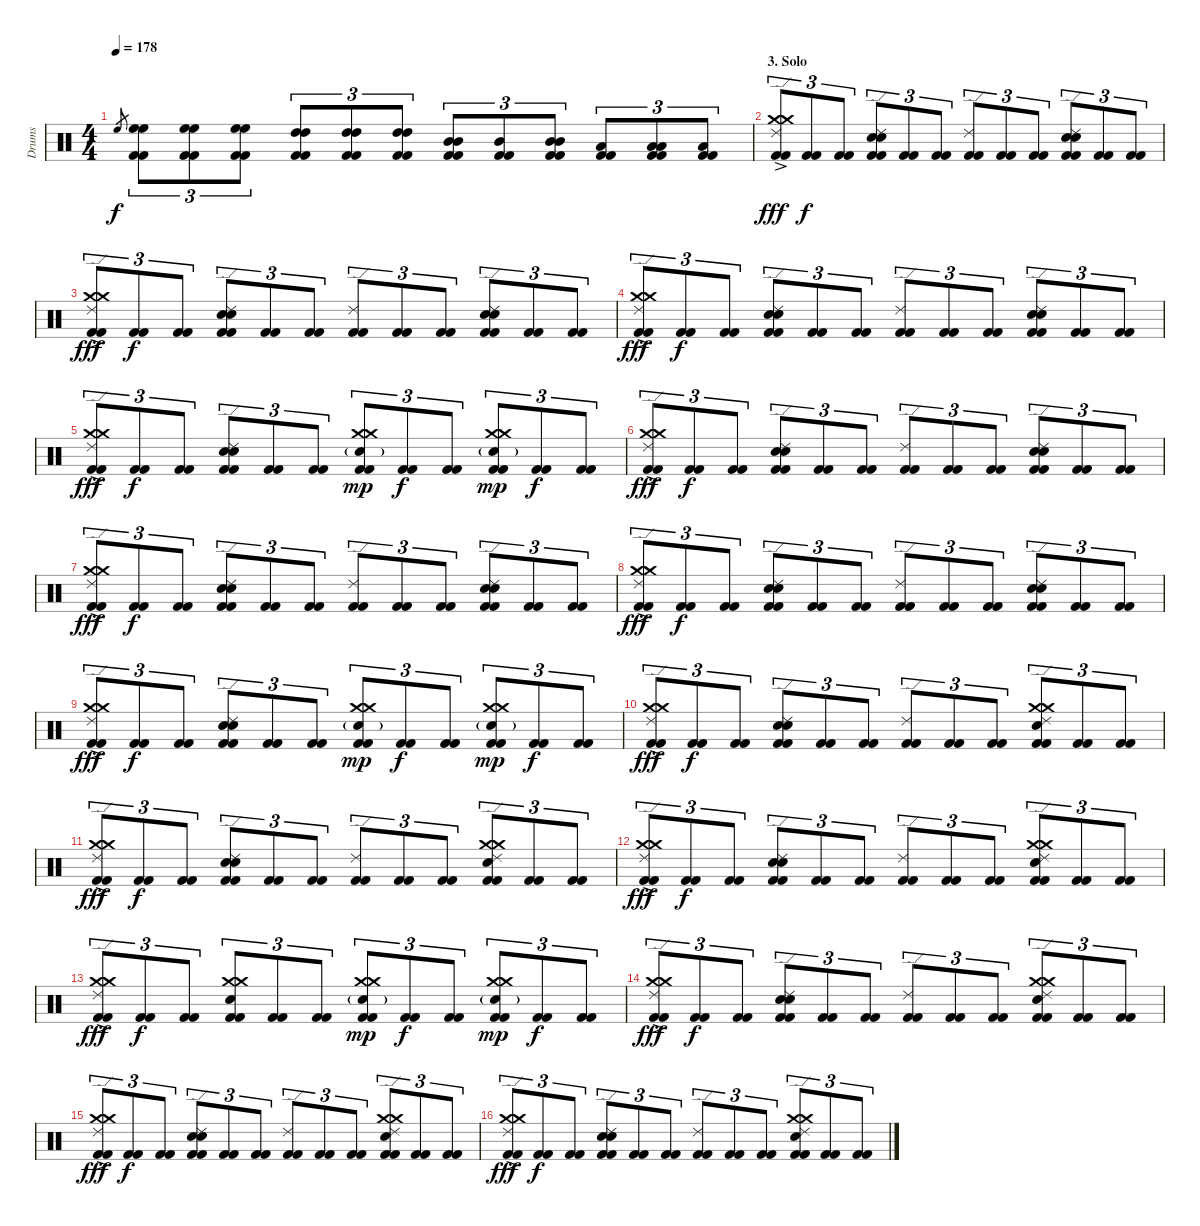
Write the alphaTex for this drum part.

\track ("Drums" "Drums") {instrument percussion}
\staff {score}
\articulation defaults
\ts (4 4)
\tempo 178
\clef neutral
\ks c "High Floor Tom (hit)".8{gr dy f}
("High Floor Tom (hit)" "High Floor Tom (hit)" "Kick (hit) 2" "Kick (hit) 2").8{tu (3 2)} ("High Floor Tom (hit)" "High Floor Tom (hit)" "Kick (hit) 2" "Kick (hit) 2").8{tu (3 2)} ("High Floor Tom (hit)" "High Floor Tom (hit)" "Kick (hit) 2" "Kick (hit) 2").8{tu (3 2)} ("High Tom (hit)" "High Tom (hit)" "Kick (hit) 2" "Kick (hit) 2").8{tu (3 2)} ("High Tom (hit)" "High Tom (hit)" "Kick (hit) 2" "Kick (hit) 2").8{tu (3 2)} ("High Tom (hit)" "High Tom (hit)" "Kick (hit) 2" "Kick (hit) 2").8{tu (3 2)} ("Mid Tom (hit)" "Mid Tom (hit)" "Kick (hit) 2" "Kick (hit) 2").8{tu (3 2)} ("Mid Tom (hit)" "Kick (hit) 2" "Kick (hit) 2").8{tu (3 2)} ("Mid Tom (hit)" "Mid Tom (hit)" "Kick (hit) 2" "Kick (hit) 2").8{tu (3 2)} ("Low Tom (hit)" "Kick (hit) 2" "Kick (hit) 2").8{tu (3 2)} ("Low Tom (hit)" "Low Tom (hit)" "Kick (hit) 2" "Kick (hit) 2").8{tu (3 2)} ("Low Tom (hit)" "Kick (hit) 2" "Kick (hit) 2").8{tu (3 2)} |
\section ("" "3. Solo")
("Crash medium (hit)"{ac} "Crash medium (hit)"{ac} "Ride (edge) 2" "Kick (hit) 2" "Kick (hit) 2").8{tu (3 2) dy fff} ("Kick (hit) 2" "Kick (hit) 2").8{tu (3 2) dy f} ("Kick (hit) 2" "Kick (hit) 2").8{tu (3 2)} ("Ride (edge) 2" "Snare (hit) 2" "Electric Snare (hit)" "Kick (hit) 2" "Kick (hit) 2").8{tu (3 2)} ("Kick (hit) 2" "Kick (hit) 2").8{tu (3 2)} ("Kick (hit) 2" "Kick (hit) 2").8{tu (3 2)} ("Ride (edge) 2" "Kick (hit) 2" "Kick (hit) 2").8{tu (3 2)} ("Kick (hit) 2" "Kick (hit) 2").8{tu (3 2)} ("Kick (hit) 2" "Kick (hit) 2").8{tu (3 2)} ("Ride (edge) 2" "Snare (hit) 2" "Electric Snare (hit)" "Kick (hit) 2" "Kick (hit) 2").8{tu (3 2)} ("Kick (hit) 2" "Kick (hit) 2").8{tu (3 2)} ("Kick (hit) 2" "Kick (hit) 2").8{tu (3 2)} |
("Crash medium (hit)"{ac} "Crash medium (hit)"{ac} "Ride (edge) 2" "Kick (hit) 2" "Kick (hit) 2").8{tu (3 2) dy fff} ("Kick (hit) 2" "Kick (hit) 2").8{tu (3 2) dy f} ("Kick (hit) 2" "Kick (hit) 2").8{tu (3 2)} ("Ride (edge) 2" "Snare (hit) 2" "Electric Snare (hit)" "Kick (hit) 2" "Kick (hit) 2").8{tu (3 2)} ("Kick (hit) 2" "Kick (hit) 2").8{tu (3 2)} ("Kick (hit) 2" "Kick (hit) 2").8{tu (3 2)} ("Ride (edge) 2" "Kick (hit) 2" "Kick (hit) 2").8{tu (3 2)} ("Kick (hit) 2" "Kick (hit) 2").8{tu (3 2)} ("Kick (hit) 2" "Kick (hit) 2").8{tu (3 2)} ("Ride (edge) 2" "Snare (hit) 2" "Electric Snare (hit)" "Kick (hit) 2" "Kick (hit) 2").8{tu (3 2)} ("Kick (hit) 2" "Kick (hit) 2").8{tu (3 2)} ("Kick (hit) 2" "Kick (hit) 2").8{tu (3 2)} |
("Crash medium (hit)"{ac} "Crash medium (hit)"{ac} "Ride (edge) 2" "Kick (hit) 2" "Kick (hit) 2").8{tu (3 2) dy fff} ("Kick (hit) 2" "Kick (hit) 2").8{tu (3 2) dy f} ("Kick (hit) 2" "Kick (hit) 2").8{tu (3 2)} ("Ride (edge) 2" "Snare (hit) 2" "Electric Snare (hit)" "Kick (hit) 2" "Kick (hit) 2").8{tu (3 2)} ("Kick (hit) 2" "Kick (hit) 2").8{tu (3 2)} ("Kick (hit) 2" "Kick (hit) 2").8{tu (3 2)} ("Ride (edge) 2" "Kick (hit) 2" "Kick (hit) 2").8{tu (3 2)} ("Kick (hit) 2" "Kick (hit) 2").8{tu (3 2)} ("Kick (hit) 2" "Kick (hit) 2").8{tu (3 2)} ("Ride (edge) 2" "Snare (hit) 2" "Electric Snare (hit)" "Kick (hit) 2" "Kick (hit) 2").8{tu (3 2)} ("Kick (hit) 2" "Kick (hit) 2").8{tu (3 2)} ("Kick (hit) 2" "Kick (hit) 2").8{tu (3 2)} |
("Crash medium (hit)"{ac} "Crash medium (hit)"{ac} "Ride (edge) 2" "Kick (hit) 2" "Kick (hit) 2").8{tu (3 2) dy fff} ("Kick (hit) 2" "Kick (hit) 2").8{tu (3 2) dy f} ("Kick (hit) 2" "Kick (hit) 2").8{tu (3 2)} ("Ride (edge) 2" "Snare (hit) 2" "Electric Snare (hit)" "Kick (hit) 2" "Kick (hit) 2").8{tu (3 2)} ("Kick (hit) 2" "Kick (hit) 2").8{tu (3 2)} ("Kick (hit) 2" "Kick (hit) 2").8{tu (3 2)} ("Crash medium (hit)" "Crash medium (hit)" "Snare (hit) 2"{g} "Kick (hit) 2" "Kick (hit) 2").8{tu (3 2) dy mp} ("Kick (hit) 2" "Kick (hit) 2").8{tu (3 2) dy f} ("Kick (hit) 2" "Kick (hit) 2").8{tu (3 2)} ("Crash medium (hit)" "Crash medium (hit)" "Snare (hit) 2"{g} "Kick (hit) 2" "Kick (hit) 2").8{tu (3 2) dy mp} ("Kick (hit) 2" "Kick (hit) 2").8{tu (3 2) dy f} ("Kick (hit) 2" "Kick (hit) 2").8{tu (3 2)} |
("Crash medium (hit)"{ac} "Crash medium (hit)"{ac} "Ride (edge) 2" "Kick (hit) 2" "Kick (hit) 2").8{tu (3 2) dy fff} ("Kick (hit) 2" "Kick (hit) 2").8{tu (3 2) dy f} ("Kick (hit) 2" "Kick (hit) 2").8{tu (3 2)} ("Ride (edge) 2" "Snare (hit) 2" "Electric Snare (hit)" "Kick (hit) 2" "Kick (hit) 2").8{tu (3 2)} ("Kick (hit) 2" "Kick (hit) 2").8{tu (3 2)} ("Kick (hit) 2" "Kick (hit) 2").8{tu (3 2)} ("Ride (edge) 2" "Kick (hit) 2" "Kick (hit) 2").8{tu (3 2)} ("Kick (hit) 2" "Kick (hit) 2").8{tu (3 2)} ("Kick (hit) 2" "Kick (hit) 2").8{tu (3 2)} ("Ride (edge) 2" "Snare (hit) 2" "Electric Snare (hit)" "Kick (hit) 2" "Kick (hit) 2").8{tu (3 2)} ("Kick (hit) 2" "Kick (hit) 2").8{tu (3 2)} ("Kick (hit) 2" "Kick (hit) 2").8{tu (3 2)} |
("Crash medium (hit)"{ac} "Crash medium (hit)"{ac} "Ride (edge) 2" "Kick (hit) 2" "Kick (hit) 2").8{tu (3 2) dy fff} ("Kick (hit) 2" "Kick (hit) 2").8{tu (3 2) dy f} ("Kick (hit) 2" "Kick (hit) 2").8{tu (3 2)} ("Ride (edge) 2" "Snare (hit) 2" "Electric Snare (hit)" "Kick (hit) 2" "Kick (hit) 2").8{tu (3 2)} ("Kick (hit) 2" "Kick (hit) 2").8{tu (3 2)} ("Kick (hit) 2" "Kick (hit) 2").8{tu (3 2)} ("Ride (edge) 2" "Kick (hit) 2" "Kick (hit) 2").8{tu (3 2)} ("Kick (hit) 2" "Kick (hit) 2").8{tu (3 2)} ("Kick (hit) 2" "Kick (hit) 2").8{tu (3 2)} ("Ride (edge) 2" "Snare (hit) 2" "Electric Snare (hit)" "Kick (hit) 2" "Kick (hit) 2").8{tu (3 2)} ("Kick (hit) 2" "Kick (hit) 2").8{tu (3 2)} ("Kick (hit) 2" "Kick (hit) 2").8{tu (3 2)} |
("Crash medium (hit)"{ac} "Crash medium (hit)"{ac} "Ride (edge) 2" "Kick (hit) 2" "Kick (hit) 2").8{tu (3 2) dy fff} ("Kick (hit) 2" "Kick (hit) 2").8{tu (3 2) dy f} ("Kick (hit) 2" "Kick (hit) 2").8{tu (3 2)} ("Ride (edge) 2" "Snare (hit) 2" "Electric Snare (hit)" "Kick (hit) 2" "Kick (hit) 2").8{tu (3 2)} ("Kick (hit) 2" "Kick (hit) 2").8{tu (3 2)} ("Kick (hit) 2" "Kick (hit) 2").8{tu (3 2)} ("Ride (edge) 2" "Kick (hit) 2" "Kick (hit) 2").8{tu (3 2)} ("Kick (hit) 2" "Kick (hit) 2").8{tu (3 2)} ("Kick (hit) 2" "Kick (hit) 2").8{tu (3 2)} ("Ride (edge) 2" "Snare (hit) 2" "Electric Snare (hit)" "Kick (hit) 2" "Kick (hit) 2").8{tu (3 2)} ("Kick (hit) 2" "Kick (hit) 2").8{tu (3 2)} ("Kick (hit) 2" "Kick (hit) 2").8{tu (3 2)} |
("Crash medium (hit)"{ac} "Crash medium (hit)"{ac} "Ride (edge) 2" "Kick (hit) 2" "Kick (hit) 2").8{tu (3 2) dy fff} ("Kick (hit) 2" "Kick (hit) 2").8{tu (3 2) dy f} ("Kick (hit) 2" "Kick (hit) 2").8{tu (3 2)} ("Ride (edge) 2" "Snare (hit) 2" "Electric Snare (hit)" "Kick (hit) 2" "Kick (hit) 2").8{tu (3 2)} ("Kick (hit) 2" "Kick (hit) 2").8{tu (3 2)} ("Kick (hit) 2" "Kick (hit) 2").8{tu (3 2)} ("Crash medium (hit)" "Crash medium (hit)" "Snare (hit) 2"{g} "Kick (hit) 2" "Kick (hit) 2").8{tu (3 2) dy mp} ("Kick (hit) 2" "Kick (hit) 2").8{tu (3 2) dy f} ("Kick (hit) 2" "Kick (hit) 2").8{tu (3 2)} ("Crash medium (hit)" "Crash medium (hit)" "Snare (hit) 2"{g} "Kick (hit) 2" "Kick (hit) 2").8{tu (3 2) dy mp} ("Kick (hit) 2" "Kick (hit) 2").8{tu (3 2) dy f} ("Kick (hit) 2" "Kick (hit) 2").8{tu (3 2)} |
("Crash medium (hit)"{ac} "Crash medium (hit)"{ac} "Ride (edge) 2" "Kick (hit) 2" "Kick (hit) 2").8{tu (3 2) dy fff} ("Kick (hit) 2" "Kick (hit) 2").8{tu (3 2) dy f} ("Kick (hit) 2" "Kick (hit) 2").8{tu (3 2)} ("Ride (edge) 2" "Snare (hit) 2" "Electric Snare (hit)" "Kick (hit) 2" "Kick (hit) 2").8{tu (3 2)} ("Kick (hit) 2" "Kick (hit) 2").8{tu (3 2)} ("Kick (hit) 2" "Kick (hit) 2").8{tu (3 2)} ("Ride (edge) 2" "Kick (hit) 2" "Kick (hit) 2").8{tu (3 2)} ("Kick (hit) 2" "Kick (hit) 2").8{tu (3 2)} ("Kick (hit) 2" "Kick (hit) 2").8{tu (3 2)} ("Crash medium (hit)" "Crash medium (hit)" "Electric Snare (hit)" "Ride (edge) 2" "Kick (hit) 2" "Kick (hit) 2").8{tu (3 2)} ("Kick (hit) 2" "Kick (hit) 2").8{tu (3 2)} ("Kick (hit) 2" "Kick (hit) 2").8{tu (3 2)} |
("Crash medium (hit)"{ac} "Crash medium (hit)"{ac} "Ride (edge) 2" "Kick (hit) 2" "Kick (hit) 2").8{tu (3 2) dy fff} ("Kick (hit) 2" "Kick (hit) 2").8{tu (3 2) dy f} ("Kick (hit) 2" "Kick (hit) 2").8{tu (3 2)} ("Ride (edge) 2" "Snare (hit) 2" "Electric Snare (hit)" "Kick (hit) 2" "Kick (hit) 2").8{tu (3 2)} ("Kick (hit) 2" "Kick (hit) 2").8{tu (3 2)} ("Kick (hit) 2" "Kick (hit) 2").8{tu (3 2)} ("Ride (edge) 2" "Kick (hit) 2" "Kick (hit) 2").8{tu (3 2)} ("Kick (hit) 2" "Kick (hit) 2").8{tu (3 2)} ("Kick (hit) 2" "Kick (hit) 2").8{tu (3 2)} ("Crash medium (hit)" "Crash medium (hit)" "Electric Snare (hit)" "Ride (edge) 2" "Kick (hit) 2" "Kick (hit) 2").8{tu (3 2)} ("Kick (hit) 2" "Kick (hit) 2").8{tu (3 2)} ("Kick (hit) 2" "Kick (hit) 2").8{tu (3 2)} |
("Crash medium (hit)"{ac} "Crash medium (hit)"{ac} "Ride (edge) 2" "Kick (hit) 2" "Kick (hit) 2").8{tu (3 2) dy fff} ("Kick (hit) 2" "Kick (hit) 2").8{tu (3 2) dy f} ("Kick (hit) 2" "Kick (hit) 2").8{tu (3 2)} ("Ride (edge) 2" "Snare (hit) 2" "Electric Snare (hit)" "Kick (hit) 2" "Kick (hit) 2").8{tu (3 2)} ("Kick (hit) 2" "Kick (hit) 2").8{tu (3 2)} ("Kick (hit) 2" "Kick (hit) 2").8{tu (3 2)} ("Ride (edge) 2" "Kick (hit) 2" "Kick (hit) 2").8{tu (3 2)} ("Kick (hit) 2" "Kick (hit) 2").8{tu (3 2)} ("Kick (hit) 2" "Kick (hit) 2").8{tu (3 2)} ("Crash medium (hit)" "Crash medium (hit)" "Electric Snare (hit)" "Ride (edge) 2" "Kick (hit) 2" "Kick (hit) 2").8{tu (3 2)} ("Kick (hit) 2" "Kick (hit) 2").8{tu (3 2)} ("Kick (hit) 2" "Kick (hit) 2").8{tu (3 2)} |
("Crash medium (hit)"{ac} "Crash medium (hit)"{ac} "Ride (edge) 2" "Kick (hit) 2" "Kick (hit) 2").8{tu (3 2) dy fff} ("Kick (hit) 2" "Kick (hit) 2").8{tu (3 2) dy f} ("Kick (hit) 2" "Kick (hit) 2").8{tu (3 2)} ("Crash medium (hit)" "Crash medium (hit)" "Electric Snare (hit)" "Kick (hit) 2" "Kick (hit) 2").8{tu (3 2)} ("Kick (hit) 2" "Kick (hit) 2").8{tu (3 2)} ("Kick (hit) 2" "Kick (hit) 2").8{tu (3 2)} ("Crash medium (hit)" "Crash medium (hit)" "Snare (hit) 2"{g} "Kick (hit) 2" "Kick (hit) 2").8{tu (3 2) dy mp} ("Kick (hit) 2" "Kick (hit) 2").8{tu (3 2) dy f} ("Kick (hit) 2" "Kick (hit) 2").8{tu (3 2)} ("Crash medium (hit)" "Crash medium (hit)" "Snare (hit) 2"{g} "Kick (hit) 2" "Kick (hit) 2").8{tu (3 2) dy mp} ("Kick (hit) 2" "Kick (hit) 2").8{tu (3 2) dy f} ("Kick (hit) 2" "Kick (hit) 2").8{tu (3 2)} |
("Crash medium (hit)"{ac} "Crash medium (hit)"{ac} "Ride (edge) 2" "Kick (hit) 2" "Kick (hit) 2").8{tu (3 2) dy fff} ("Kick (hit) 2" "Kick (hit) 2").8{tu (3 2) dy f} ("Kick (hit) 2" "Kick (hit) 2").8{tu (3 2)} ("Ride (edge) 2" "Snare (hit) 2" "Electric Snare (hit)" "Kick (hit) 2" "Kick (hit) 2").8{tu (3 2)} ("Kick (hit) 2" "Kick (hit) 2").8{tu (3 2)} ("Kick (hit) 2" "Kick (hit) 2").8{tu (3 2)} ("Ride (edge) 2" "Kick (hit) 2" "Kick (hit) 2").8{tu (3 2)} ("Kick (hit) 2" "Kick (hit) 2").8{tu (3 2)} ("Kick (hit) 2" "Kick (hit) 2").8{tu (3 2)} ("Crash medium (hit)" "Crash medium (hit)" "Electric Snare (hit)" "Ride (edge) 2" "Kick (hit) 2" "Kick (hit) 2").8{tu (3 2)} ("Kick (hit) 2" "Kick (hit) 2").8{tu (3 2)} ("Kick (hit) 2" "Kick (hit) 2").8{tu (3 2)} |
("Crash medium (hit)"{ac} "Crash medium (hit)"{ac} "Ride (edge) 2" "Kick (hit) 2" "Kick (hit) 2").8{tu (3 2) dy fff} ("Kick (hit) 2" "Kick (hit) 2").8{tu (3 2) dy f} ("Kick (hit) 2" "Kick (hit) 2").8{tu (3 2)} ("Ride (edge) 2" "Snare (hit) 2" "Electric Snare (hit)" "Kick (hit) 2" "Kick (hit) 2").8{tu (3 2)} ("Kick (hit) 2" "Kick (hit) 2").8{tu (3 2)} ("Kick (hit) 2" "Kick (hit) 2").8{tu (3 2)} ("Ride (edge) 2" "Kick (hit) 2" "Kick (hit) 2").8{tu (3 2)} ("Kick (hit) 2" "Kick (hit) 2").8{tu (3 2)} ("Kick (hit) 2" "Kick (hit) 2").8{tu (3 2)} ("Crash medium (hit)" "Crash medium (hit)" "Electric Snare (hit)" "Ride (edge) 2" "Kick (hit) 2" "Kick (hit) 2").8{tu (3 2)} ("Kick (hit) 2" "Kick (hit) 2").8{tu (3 2)} ("Kick (hit) 2" "Kick (hit) 2").8{tu (3 2)} |
("Crash medium (hit)"{ac} "Crash medium (hit)"{ac} "Ride (edge) 2" "Kick (hit) 2" "Kick (hit) 2").8{tu (3 2) dy fff} ("Kick (hit) 2" "Kick (hit) 2").8{tu (3 2) dy f} ("Kick (hit) 2" "Kick (hit) 2").8{tu (3 2)} ("Ride (edge) 2" "Snare (hit) 2" "Electric Snare (hit)" "Kick (hit) 2" "Kick (hit) 2").8{tu (3 2)} ("Kick (hit) 2" "Kick (hit) 2").8{tu (3 2)} ("Kick (hit) 2" "Kick (hit) 2").8{tu (3 2)} ("Ride (edge) 2" "Kick (hit) 2" "Kick (hit) 2").8{tu (3 2)} ("Kick (hit) 2" "Kick (hit) 2").8{tu (3 2)} ("Kick (hit) 2" "Kick (hit) 2").8{tu (3 2)} ("Crash medium (hit)" "Crash medium (hit)" "Electric Snare (hit)" "Ride (edge) 2" "Kick (hit) 2" "Kick (hit) 2").8{tu (3 2)} ("Kick (hit) 2" "Kick (hit) 2").8{tu (3 2)} ("Kick (hit) 2" "Kick (hit) 2").8{tu (3 2)}
